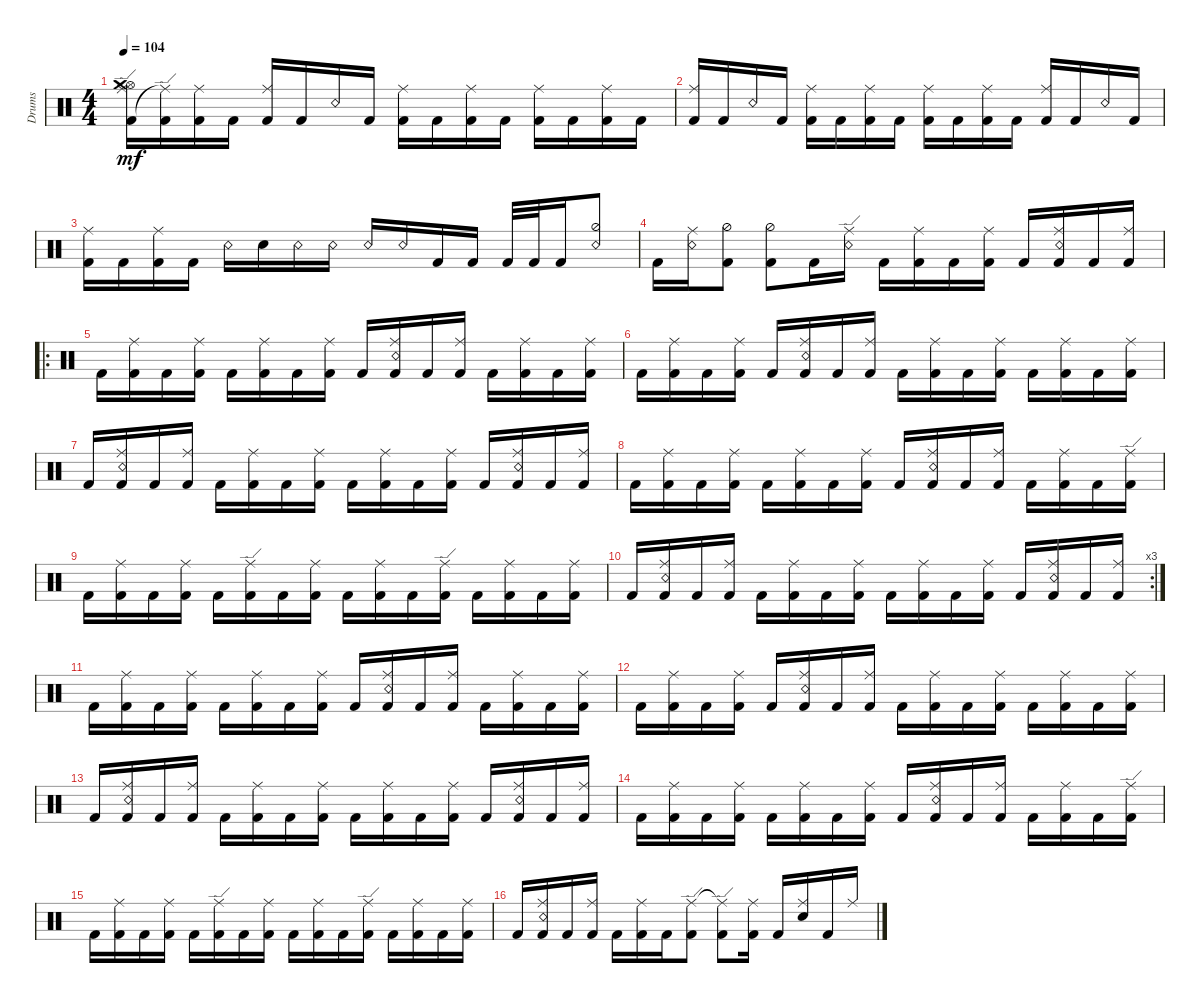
\defaultSystemsLayout 4
\bracketExtendMode groupsimilarinstruments
\otherSystemsTrackNameOrientation horizontal
\track ("Martin Lopez" "Drums") {instrument percussion}
\staff {score}
\articulation defaults
\ts (4 4)
\tempo 104
\clef neutral
\ks c
("Ride (edge)" "Kick (hit) 2" "Hi-Hat (open)" "Crash medium (hit)").16{dy mf beam Down} ("Kick (hit) 2" "Ride (edge)"{t}).16{beam Down} ("Ride (middle)" "Kick (hit) 2").16{beam Down} "Kick (hit) 2".16{beam Down} ("Kick (hit) 2" "Ride (middle)").16{beam Up} "Kick (hit) 2".16{beam Up} "Snare (rim shot)".16{beam Up} "Kick (hit) 2".16{beam Up} ("Kick (hit) 2" "Ride (middle)").16{beam Down} "Kick (hit) 2".16{beam Down} ("Kick (hit) 2" "Ride (middle)").16{beam Down} "Kick (hit) 2".16{beam Down} ("Kick (hit) 2" "Ride (middle)").16{beam Down} "Kick (hit) 2".16{beam Down} ("Kick (hit) 2" "Ride (middle)").16{beam Down} "Kick (hit) 2".16{beam Down} |
("Kick (hit) 2" "Ride (middle)").16{beam Up} "Kick (hit) 2".16{beam Up} "Snare (rim shot)".16{beam Up} "Kick (hit) 2".16{beam Up} ("Kick (hit) 2" "Ride (middle)").16{beam Down} "Kick (hit) 2".16{beam Down} ("Kick (hit) 2" "Ride (middle)").16{beam Down} "Kick (hit) 2".16{beam Down} ("Kick (hit) 2" "Ride (middle)").16{beam Down} "Kick (hit) 2".16{beam Down} ("Kick (hit) 2" "Ride (middle)").16{beam Down} "Kick (hit) 2".16{beam Down} ("Kick (hit) 2" "Ride (middle)").16{beam Up} "Kick (hit) 2".16{beam Up} "Snare (rim shot)".16{beam Up} "Kick (hit) 2".16{beam Up} |
("Kick (hit) 2" "Ride (middle)").16{beam Down} "Kick (hit) 2".16{beam Down} ("Kick (hit) 2" "Ride (middle)").16{beam Down} "Kick (hit) 2".16{beam Down} "Snare (rim shot)".16{beam Down} "Snare (hit) 2".16{beam Down} "Snare (rim shot)".16{beam Down} "Snare (rim shot)".16{beam Down} "Snare (rim shot)".16{beam Up} "Snare (rim shot)".16{beam Up} "Kick (hit) 2".16{beam Up} "Kick (hit) 2".16{beam Up} "Kick (hit) 2".32{beam Up} "Kick (hit) 2".32{beam Up} "Kick (hit) 2".16{beam Up} ("Snare (rim shot)" "Hi-Hat (half)").8{beam Up} |
"Kick (hit) 2".16{beam Down} ("Snare (rim shot)" "Ride (middle)").16{beam Down} ("Hi-Hat (half)" "Kick (hit) 2").8{beam Down} ("Hi-Hat (half)" "Kick (hit) 2").8{beam Down} "Kick (hit) 2".16{beam Down} ("Snare (rim shot)" "Ride (edge)").16{beam Down} "Kick (hit) 2".16{beam Down} ("Kick (hit) 2" "Ride (middle)").16{beam Down} "Kick (hit) 2".16{beam Down} ("Kick (hit) 2" "Ride (middle)").16{beam Down} "Kick (hit) 2".16{beam Up} ("Kick (hit) 2" "Snare (rim shot)" "Ride (middle)").16{beam Up} "Kick (hit) 2".16{beam Up} ("Kick (hit) 2" "Ride (middle)").16{beam Up} |
\ro "Kick (hit) 2".16{beam Down}
("Kick (hit) 2" "Ride (middle)").16{beam Down} "Kick (hit) 2".16{beam Down} ("Kick (hit) 2" "Ride (middle)").16{beam Down} "Kick (hit) 2".16{beam Down} ("Kick (hit) 2" "Ride (middle)").16{beam Down} "Kick (hit) 2".16{beam Down} ("Kick (hit) 2" "Ride (middle)").16{beam Down} "Kick (hit) 2".16{beam Up} ("Kick (hit) 2" "Snare (rim shot)" "Ride (middle)").16{beam Up} "Kick (hit) 2".16{beam Up} ("Kick (hit) 2" "Ride (middle)").16{beam Up} "Kick (hit) 2".16{beam Down} ("Kick (hit) 2" "Ride (middle)").16{beam Down} "Kick (hit) 2".16{beam Down} ("Kick (hit) 2" "Ride (middle)").16{beam Down} |
"Kick (hit) 2".16{beam Down} ("Kick (hit) 2" "Ride (middle)").16{beam Down} "Kick (hit) 2".16{beam Down} ("Kick (hit) 2" "Ride (middle)").16{beam Down} "Kick (hit) 2".16{beam Up} ("Kick (hit) 2" "Snare (rim shot)" "Ride (middle)").16{beam Up} "Kick (hit) 2".16{beam Up} ("Kick (hit) 2" "Ride (middle)").16{beam Up} "Kick (hit) 2".16{beam Down} ("Kick (hit) 2" "Ride (middle)").16{beam Down} "Kick (hit) 2".16{beam Down} ("Kick (hit) 2" "Ride (middle)").16{beam Down} "Kick (hit) 2".16{beam Down} ("Kick (hit) 2" "Ride (middle)").16{beam Down} "Kick (hit) 2".16{beam Down} ("Kick (hit) 2" "Ride (middle)").16{beam Down} |
"Kick (hit) 2".16{beam Up} ("Kick (hit) 2" "Snare (rim shot)" "Ride (middle)").16{beam Up} "Kick (hit) 2".16{beam Up} ("Kick (hit) 2" "Ride (middle)").16{beam Up} "Kick (hit) 2".16{beam Down} ("Kick (hit) 2" "Ride (middle)").16{beam Down} "Kick (hit) 2".16{beam Down} ("Kick (hit) 2" "Ride (middle)").16{beam Down} "Kick (hit) 2".16{beam Down} ("Kick (hit) 2" "Ride (middle)").16{beam Down} "Kick (hit) 2".16{beam Down} ("Kick (hit) 2" "Ride (middle)").16{beam Down} "Kick (hit) 2".16{beam Up} ("Kick (hit) 2" "Snare (rim shot)" "Ride (middle)").16{beam Up} "Kick (hit) 2".16{beam Up} ("Kick (hit) 2" "Ride (middle)").16{beam Up} |
"Kick (hit) 2".16{beam Down} ("Kick (hit) 2" "Ride (middle)").16{beam Down} "Kick (hit) 2".16{beam Down} ("Kick (hit) 2" "Ride (middle)").16{beam Down} "Kick (hit) 2".16{beam Down} ("Kick (hit) 2" "Ride (middle)").16{beam Down} "Kick (hit) 2".16{beam Down} ("Kick (hit) 2" "Ride (middle)").16{beam Down} "Kick (hit) 2".16{beam Up} ("Kick (hit) 2" "Snare (rim shot)" "Ride (middle)").16{beam Up} "Kick (hit) 2".16{beam Up} ("Kick (hit) 2" "Ride (middle)").16{beam Up} "Kick (hit) 2".16{beam Down} ("Kick (hit) 2" "Ride (middle)").16{beam Down} "Kick (hit) 2".16{beam Down} ("Kick (hit) 2" "Ride (edge)").16{beam Down} |
"Kick (hit) 2".16{beam Down} ("Kick (hit) 2" "Ride (middle)").16{beam Down} "Kick (hit) 2".16{beam Down} ("Kick (hit) 2" "Ride (middle)").16{beam Down} "Kick (hit) 2".16{beam Down} ("Kick (hit) 2" "Ride (edge)").16{beam Down} "Kick (hit) 2".16{beam Down} ("Kick (hit) 2" "Ride (middle)").16{beam Down} "Kick (hit) 2".16{beam Down} ("Kick (hit) 2" "Ride (middle)").16{beam Down} "Kick (hit) 2".16{beam Down} ("Kick (hit) 2" "Ride (edge)").16{beam Down} "Kick (hit) 2".16{beam Down} ("Kick (hit) 2" "Ride (middle)").16{beam Down} "Kick (hit) 2".16{beam Down} ("Kick (hit) 2" "Ride (middle)").16{beam Down} |
\rc 3 "Kick (hit) 2".16{beam Up}
("Kick (hit) 2" "Snare (rim shot)" "Ride (middle)").16{beam Up} "Kick (hit) 2".16{beam Up} ("Kick (hit) 2" "Ride (middle)").16{beam Up} "Kick (hit) 2".16{beam Down} ("Kick (hit) 2" "Ride (middle)").16{beam Down} "Kick (hit) 2".16{beam Down} ("Kick (hit) 2" "Ride (middle)").16{beam Down} "Kick (hit) 2".16{beam Down} ("Kick (hit) 2" "Ride (middle)").16{beam Down} "Kick (hit) 2".16{beam Down} ("Kick (hit) 2" "Ride (middle)").16{beam Down} "Kick (hit) 2".16{beam Up} ("Kick (hit) 2" "Snare (rim shot)" "Ride (middle)").16{beam Up} "Kick (hit) 2".16{beam Up} ("Kick (hit) 2" "Ride (middle)").16{beam Up} |
"Kick (hit) 2".16{beam Down} ("Kick (hit) 2" "Ride (middle)").16{beam Down} "Kick (hit) 2".16{beam Down} ("Kick (hit) 2" "Ride (middle)").16{beam Down} "Kick (hit) 2".16{beam Down} ("Kick (hit) 2" "Ride (middle)").16{beam Down} "Kick (hit) 2".16{beam Down} ("Kick (hit) 2" "Ride (middle)").16{beam Down} "Kick (hit) 2".16{beam Up} ("Kick (hit) 2" "Snare (rim shot)" "Ride (middle)").16{beam Up} "Kick (hit) 2".16{beam Up} ("Kick (hit) 2" "Ride (middle)").16{beam Up} "Kick (hit) 2".16{beam Down} ("Kick (hit) 2" "Ride (middle)").16{beam Down} "Kick (hit) 2".16{beam Down} ("Kick (hit) 2" "Ride (middle)").16{beam Down} |
"Kick (hit) 2".16{beam Down} ("Kick (hit) 2" "Ride (middle)").16{beam Down} "Kick (hit) 2".16{beam Down} ("Kick (hit) 2" "Ride (middle)").16{beam Down} "Kick (hit) 2".16{beam Up} ("Kick (hit) 2" "Snare (rim shot)" "Ride (middle)").16{beam Up} "Kick (hit) 2".16{beam Up} ("Kick (hit) 2" "Ride (middle)").16{beam Up} "Kick (hit) 2".16{beam Down} ("Kick (hit) 2" "Ride (middle)").16{beam Down} "Kick (hit) 2".16{beam Down} ("Kick (hit) 2" "Ride (middle)").16{beam Down} "Kick (hit) 2".16{beam Down} ("Kick (hit) 2" "Ride (middle)").16{beam Down} "Kick (hit) 2".16{beam Down} ("Kick (hit) 2" "Ride (middle)").16{beam Down} |
"Kick (hit) 2".16{beam Up} ("Kick (hit) 2" "Snare (rim shot)" "Ride (middle)").16{beam Up} "Kick (hit) 2".16{beam Up} ("Kick (hit) 2" "Ride (middle)").16{beam Up} "Kick (hit) 2".16{beam Down} ("Kick (hit) 2" "Ride (middle)").16{beam Down} "Kick (hit) 2".16{beam Down} ("Kick (hit) 2" "Ride (middle)").16{beam Down} "Kick (hit) 2".16{beam Down} ("Kick (hit) 2" "Ride (middle)").16{beam Down} "Kick (hit) 2".16{beam Down} ("Kick (hit) 2" "Ride (middle)").16{beam Down} "Kick (hit) 2".16{beam Up} ("Kick (hit) 2" "Snare (rim shot)" "Ride (middle)").16{beam Up} "Kick (hit) 2".16{beam Up} ("Kick (hit) 2" "Ride (middle)").16{beam Up} |
"Kick (hit) 2".16{beam Down} ("Kick (hit) 2" "Ride (middle)").16{beam Down} "Kick (hit) 2".16{beam Down} ("Kick (hit) 2" "Ride (middle)").16{beam Down} "Kick (hit) 2".16{beam Down} ("Kick (hit) 2" "Ride (middle)").16{beam Down} "Kick (hit) 2".16{beam Down} ("Kick (hit) 2" "Ride (middle)").16{beam Down} "Kick (hit) 2".16{beam Up} ("Kick (hit) 2" "Snare (rim shot)" "Ride (middle)").16{beam Up} "Kick (hit) 2".16{beam Up} ("Kick (hit) 2" "Ride (middle)").16{beam Up} "Kick (hit) 2".16{beam Down} ("Kick (hit) 2" "Ride (middle)").16{beam Down} "Kick (hit) 2".16{beam Down} ("Kick (hit) 2" "Ride (edge)").16{beam Down} |
"Kick (hit) 2".16{beam Down} ("Kick (hit) 2" "Ride (middle)").16{beam Down} "Kick (hit) 2".16{beam Down} ("Kick (hit) 2" "Ride (middle)").16{beam Down} "Kick (hit) 2".16{beam Down} ("Kick (hit) 2" "Ride (edge)").16{beam Down} "Kick (hit) 2".16{beam Down} ("Kick (hit) 2" "Ride (middle)").16{beam Down} "Kick (hit) 2".16{beam Down} ("Kick (hit) 2" "Ride (middle)").16{beam Down} "Kick (hit) 2".16{beam Down} ("Kick (hit) 2" "Ride (edge)").16{beam Down} "Kick (hit) 2".16{beam Down} ("Kick (hit) 2" "Ride (middle)").16{beam Down} "Kick (hit) 2".16{beam Down} ("Kick (hit) 2" "Ride (middle)").16{beam Down} |
"Kick (hit) 2".16{beam Up} ("Kick (hit) 2" "Snare (rim shot)" "Ride (middle)").16{beam Up} "Kick (hit) 2".16{beam Up} ("Kick (hit) 2" "Ride (middle)").16{beam Up} "Kick (hit) 2".16{beam Down} ("Kick (hit) 2" "Ride (middle)").16{beam Down} "Kick (hit) 2".16{beam Down} ("Kick (hit) 2" "Ride (edge)").8{beam Down} ("Kick (hit) 2" "Ride (edge)"{t}).8{beam Down} ("Kick (hit) 2" "Ride (middle)").16{beam Down} "Kick (hit) 2".16{beam Up} ("Snare (hit) 2" "Ride (middle)").16{beam Up} "Kick (hit) 2".16{beam Up} "Ride (middle)".16{beam Up}
